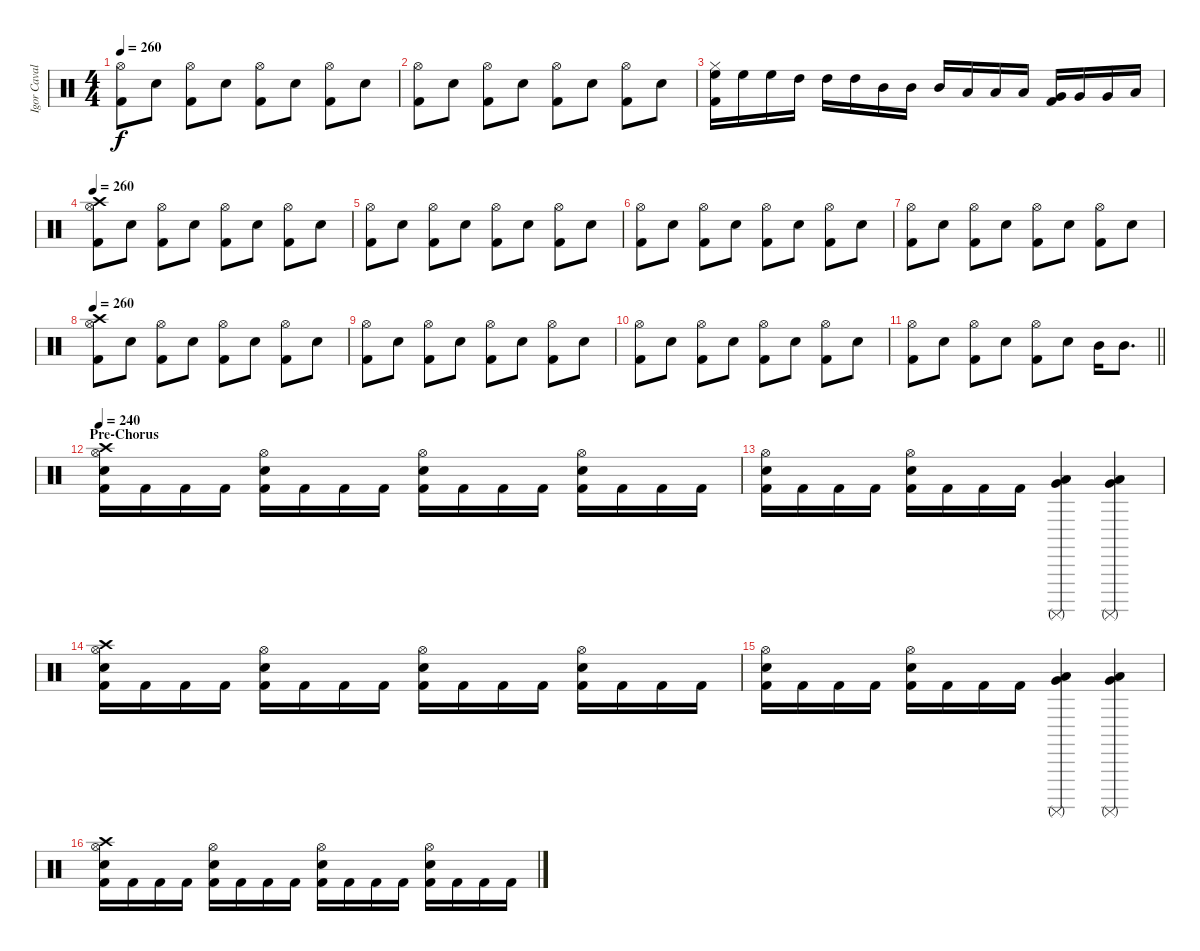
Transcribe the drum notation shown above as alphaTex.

\track ("Igor Cavalera" "Igor Caval") {instrument percussion}
\staff {score}
\articulation defaults
\ts (4 4)
\tempo 260
\clef neutral
\ks c
("Hi-Hat (open)" "Kick (hit) 2").8{dy f} "Electric Snare (hit)".8 ("Hi-Hat (open)" "Kick (hit) 2").8 "Electric Snare (hit)".8 ("Hi-Hat (open)" "Kick (hit) 2").8 "Electric Snare (hit)".8 ("Hi-Hat (open)" "Kick (hit) 2").8 "Electric Snare (hit)".8 |
("Hi-Hat (open)" "Kick (hit) 2").8 "Electric Snare (hit)".8 ("Hi-Hat (open)" "Kick (hit) 2").8 "Electric Snare (hit)".8 ("Hi-Hat (open)" "Kick (hit) 2").8 "Electric Snare (hit)".8 ("Hi-Hat (open)" "Kick (hit) 2").8 "Electric Snare (hit)".8 |
("Hi-Hat (closed)" "High Floor Tom (hit)" "Kick (hit) 2").16 "High Floor Tom (hit)".16 "High Floor Tom (hit)".16 "High Tom (hit)".16 "High Tom (hit)".16 "High Tom (hit)".16 "Mid Tom (hit)".16 "Mid Tom (hit)".16 "Mid Tom (hit)".16 "Low Tom (hit)".16 "Low Tom (hit)".16 "Low Tom (hit)".16 ("Very Low Tom (hit)" "Kick (hit) 2").16 "Very Low Tom (hit)".16 "Very Low Tom (hit)".16 "Low Floor Tom (hit)".16 |
\tempo 260
("Crash high (hit)" "Hi-Hat (open)" "Kick (hit) 2").8 "Electric Snare (hit)".8 ("Hi-Hat (open)" "Kick (hit) 2").8 "Electric Snare (hit)".8 ("Hi-Hat (open)" "Kick (hit) 2").8 "Electric Snare (hit)".8 ("Hi-Hat (open)" "Kick (hit) 2").8 "Electric Snare (hit)".8 |
("Hi-Hat (open)" "Kick (hit) 2").8 "Electric Snare (hit)".8 ("Hi-Hat (open)" "Kick (hit) 2").8 "Electric Snare (hit)".8 ("Hi-Hat (open)" "Kick (hit) 2").8 "Electric Snare (hit)".8 ("Hi-Hat (open)" "Kick (hit) 2").8 "Electric Snare (hit)".8 |
("Hi-Hat (open)" "Kick (hit) 2").8 "Electric Snare (hit)".8 ("Hi-Hat (open)" "Kick (hit) 2").8 "Electric Snare (hit)".8 ("Hi-Hat (open)" "Kick (hit) 2").8 "Electric Snare (hit)".8 ("Hi-Hat (open)" "Kick (hit) 2").8 "Electric Snare (hit)".8 |
("Hi-Hat (open)" "Kick (hit) 2").8 "Electric Snare (hit)".8 ("Hi-Hat (open)" "Kick (hit) 2").8 "Electric Snare (hit)".8 ("Hi-Hat (open)" "Kick (hit) 2").8 "Electric Snare (hit)".8 ("Hi-Hat (open)" "Kick (hit) 2").8 "Electric Snare (hit)".8 |
\tempo 260
("Crash high (hit)" "Hi-Hat (open)" "Kick (hit) 2").8 "Electric Snare (hit)".8 ("Hi-Hat (open)" "Kick (hit) 2").8 "Electric Snare (hit)".8 ("Hi-Hat (open)" "Kick (hit) 2").8 "Electric Snare (hit)".8 ("Hi-Hat (open)" "Kick (hit) 2").8 "Electric Snare (hit)".8 |
("Hi-Hat (open)" "Kick (hit) 2").8 "Electric Snare (hit)".8 ("Hi-Hat (open)" "Kick (hit) 2").8 "Electric Snare (hit)".8 ("Hi-Hat (open)" "Kick (hit) 2").8 "Electric Snare (hit)".8 ("Hi-Hat (open)" "Kick (hit) 2").8 "Electric Snare (hit)".8 |
("Hi-Hat (open)" "Kick (hit) 2").8 "Electric Snare (hit)".8 ("Hi-Hat (open)" "Kick (hit) 2").8 "Electric Snare (hit)".8 ("Hi-Hat (open)" "Kick (hit) 2").8 "Electric Snare (hit)".8 ("Hi-Hat (open)" "Kick (hit) 2").8 "Electric Snare (hit)".8 |
\barLineRight lightlight
("Hi-Hat (open)" "Kick (hit) 2").8 "Electric Snare (hit)".8 ("Hi-Hat (open)" "Kick (hit) 2").8 "Electric Snare (hit)".8 ("Hi-Hat (open)" "Kick (hit) 2").8 "Electric Snare (hit)".8 "Mid Tom (hit)".16 "Mid Tom (hit)".8{d} |
\section ("" "Pre-Chorus")
\tempo 240
("Crash high (hit)" "Hi-Hat (open)" "Electric Snare (hit)" "Kick (hit) 2").16 "Kick (hit) 2".16 "Kick (hit) 2".16 "Kick (hit) 2".16 ("Hi-Hat (open)" "Electric Snare (hit)" "Kick (hit) 2").16 "Kick (hit) 2".16 "Kick (hit) 2".16 "Kick (hit) 2".16 ("Hi-Hat (open)" "Electric Snare (hit)" "Kick (hit) 2").16 "Kick (hit) 2".16 "Kick (hit) 2".16 "Kick (hit) 2".16 ("Hi-Hat (open)" "Electric Snare (hit)" "Kick (hit) 2").16 "Kick (hit) 2".16 "Kick (hit) 2".16 "Kick (hit) 2".16 |
("Hi-Hat (open)" "Electric Snare (hit)" "Kick (hit) 2").16 "Kick (hit) 2".16 "Kick (hit) 2".16 "Kick (hit) 2".16 ("Hi-Hat (open)" "Electric Snare (hit)" "Kick (hit) 2").16 "Kick (hit) 2".16 "Kick (hit) 2".16 "Kick (hit) 2".16 ("Surdo (mute)" "Low Floor Tom (hit)" "Very Low Tom (hit)").4 ("Surdo (mute)" "Low Floor Tom (hit)" "Very Low Tom (hit)").4 |
("Crash high (hit)" "Hi-Hat (open)" "Electric Snare (hit)" "Kick (hit) 2").16 "Kick (hit) 2".16 "Kick (hit) 2".16 "Kick (hit) 2".16 ("Hi-Hat (open)" "Electric Snare (hit)" "Kick (hit) 2").16 "Kick (hit) 2".16 "Kick (hit) 2".16 "Kick (hit) 2".16 ("Hi-Hat (open)" "Electric Snare (hit)" "Kick (hit) 2").16 "Kick (hit) 2".16 "Kick (hit) 2".16 "Kick (hit) 2".16 ("Hi-Hat (open)" "Electric Snare (hit)" "Kick (hit) 2").16 "Kick (hit) 2".16 "Kick (hit) 2".16 "Kick (hit) 2".16 |
("Hi-Hat (open)" "Electric Snare (hit)" "Kick (hit) 2").16 "Kick (hit) 2".16 "Kick (hit) 2".16 "Kick (hit) 2".16 ("Hi-Hat (open)" "Electric Snare (hit)" "Kick (hit) 2").16 "Kick (hit) 2".16 "Kick (hit) 2".16 "Kick (hit) 2".16 ("Surdo (mute)" "Low Floor Tom (hit)" "Very Low Tom (hit)").4 ("Surdo (mute)" "Low Floor Tom (hit)" "Very Low Tom (hit)").4 |
("Crash high (hit)" "Hi-Hat (open)" "Electric Snare (hit)" "Kick (hit) 2").16 "Kick (hit) 2".16 "Kick (hit) 2".16 "Kick (hit) 2".16 ("Hi-Hat (open)" "Electric Snare (hit)" "Kick (hit) 2").16 "Kick (hit) 2".16 "Kick (hit) 2".16 "Kick (hit) 2".16 ("Hi-Hat (open)" "Electric Snare (hit)" "Kick (hit) 2").16 "Kick (hit) 2".16 "Kick (hit) 2".16 "Kick (hit) 2".16 ("Hi-Hat (open)" "Electric Snare (hit)" "Kick (hit) 2").16 "Kick (hit) 2".16 "Kick (hit) 2".16 "Kick (hit) 2".16
